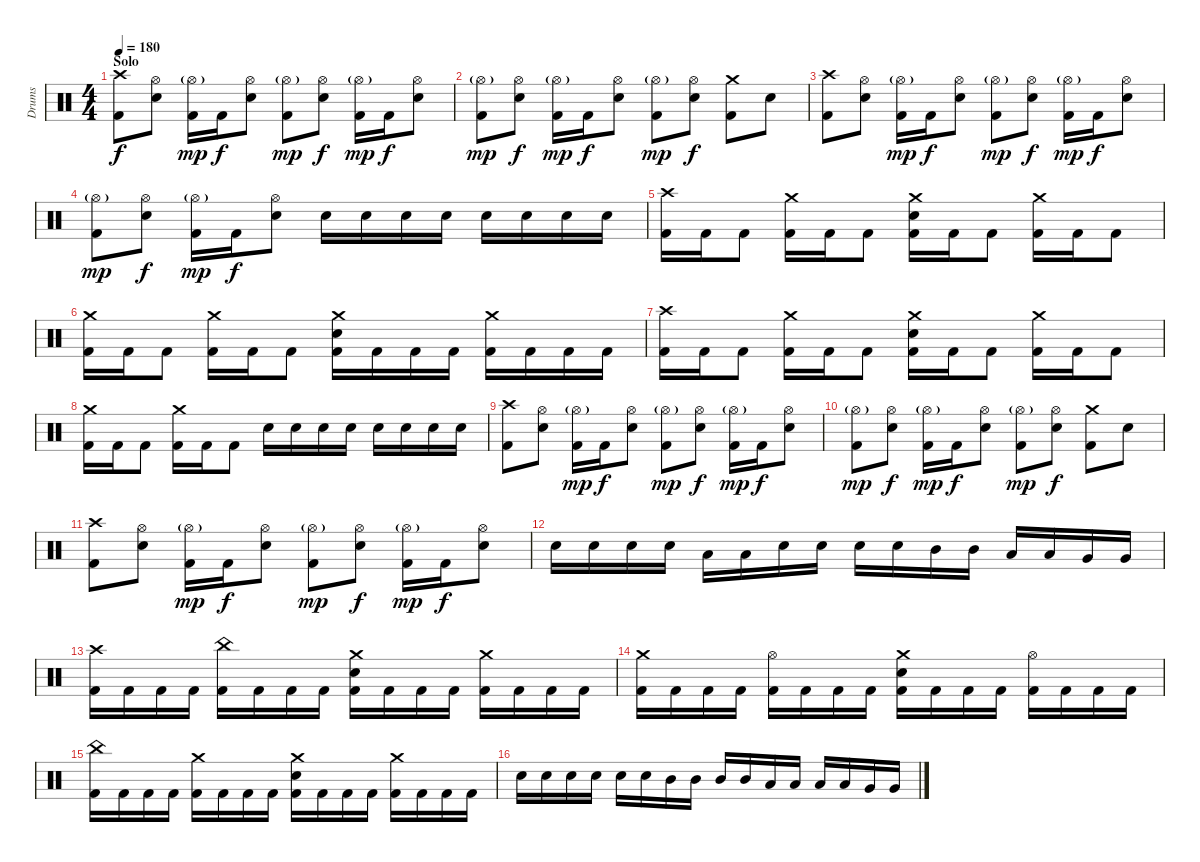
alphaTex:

\track ("Drums" "Drums") {instrument percussion}
\staff {score}
\articulation defaults
\ts (4 4)
\section ("" "Solo")
\tempo 180
\clef neutral
\ks c
("Crash high (hit)" "Kick (hit) 2").8{dy f} ("Hi-Hat (open)" "Electric Snare (hit)").8 ("Hi-Hat (open)"{g} "Kick (hit) 2").16{dy mp} "Kick (hit) 2".16{dy f} ("Hi-Hat (open)" "Electric Snare (hit)").8 ("Hi-Hat (open)"{g} "Kick (hit) 2").8{dy mp} ("Hi-Hat (open)" "Electric Snare (hit)").8{dy f} ("Hi-Hat (open)"{g} "Kick (hit) 2").16{dy mp} "Kick (hit) 2".16{dy f} ("Hi-Hat (open)" "Electric Snare (hit)").8 |
("Hi-Hat (open)"{g} "Kick (hit) 2").8{dy mp} ("Hi-Hat (open)" "Electric Snare (hit)").8{dy f} ("Hi-Hat (open)"{g} "Kick (hit) 2").16{dy mp} "Kick (hit) 2".16{dy f} ("Hi-Hat (open)" "Electric Snare (hit)").8 ("Hi-Hat (open)"{g} "Kick (hit) 2").8{dy mp} ("Hi-Hat (open)" "Electric Snare (hit)").8{dy f} ("Crash medium (hit)" "Kick (hit) 2").8 "Electric Snare (hit)".8 |
("Crash high (hit)" "Kick (hit) 2").8 ("Hi-Hat (open)" "Electric Snare (hit)").8 ("Hi-Hat (open)"{g} "Kick (hit) 2").16{dy mp} "Kick (hit) 2".16{dy f} ("Hi-Hat (open)" "Electric Snare (hit)").8 ("Hi-Hat (open)"{g} "Kick (hit) 2").8{dy mp} ("Hi-Hat (open)" "Electric Snare (hit)").8{dy f} ("Hi-Hat (open)"{g} "Kick (hit) 2").16{dy mp} "Kick (hit) 2".16{dy f} ("Hi-Hat (open)" "Electric Snare (hit)").8 |
("Hi-Hat (open)"{g} "Kick (hit) 2").8{dy mp} ("Hi-Hat (open)" "Electric Snare (hit)").8{dy f} ("Hi-Hat (open)"{g} "Kick (hit) 2").16{dy mp} "Kick (hit) 2".16{dy f} ("Hi-Hat (open)" "Electric Snare (hit)").8 "Electric Snare (hit)".16 "Electric Snare (hit)".16 "Electric Snare (hit)".16 "Electric Snare (hit)".16 "Electric Snare (hit)".16 "Electric Snare (hit)".16 "Electric Snare (hit)".16 "Electric Snare (hit)".16 |
("Crash high (hit)" "Kick (hit) 2").16 "Kick (hit) 2".16 "Kick (hit) 2".8 ("Crash medium (hit)" "Kick (hit) 2").16 "Kick (hit) 2".16 "Kick (hit) 2".8 ("Crash medium (hit)" "Electric Snare (hit)" "Kick (hit) 2").16 "Kick (hit) 2".16 "Kick (hit) 2".8 ("Crash medium (hit)" "Kick (hit) 2").16 "Kick (hit) 2".16 "Kick (hit) 2".8 |
("Crash medium (hit)" "Kick (hit) 2").16 "Kick (hit) 2".16 "Kick (hit) 2".8 ("Crash medium (hit)" "Kick (hit) 2").16 "Kick (hit) 2".16 "Kick (hit) 2".8 ("Crash medium (hit)" "Electric Snare (hit)" "Kick (hit) 2").16 "Kick (hit) 2".16 "Kick (hit) 2".16 "Kick (hit) 2".16 ("Crash medium (hit)" "Kick (hit) 2").16 "Kick (hit) 2".16 "Kick (hit) 2".16 "Kick (hit) 2".16 |
("Crash high (hit)" "Kick (hit) 2").16 "Kick (hit) 2".16 "Kick (hit) 2".8 ("Crash medium (hit)" "Kick (hit) 2").16 "Kick (hit) 2".16 "Kick (hit) 2".8 ("Crash medium (hit)" "Electric Snare (hit)" "Kick (hit) 2").16 "Kick (hit) 2".16 "Kick (hit) 2".8 ("Crash medium (hit)" "Kick (hit) 2").16 "Kick (hit) 2".16 "Kick (hit) 2".8 |
("Crash medium (hit)" "Kick (hit) 2").16 "Kick (hit) 2".16 "Kick (hit) 2".8 ("Crash medium (hit)" "Kick (hit) 2").16 "Kick (hit) 2".16 "Kick (hit) 2".8 "Electric Snare (hit)".16 "Electric Snare (hit)".16 "Electric Snare (hit)".16 "Electric Snare (hit)".16 "Electric Snare (hit)".16 "Electric Snare (hit)".16 "Electric Snare (hit)".16 "Electric Snare (hit)".16 |
("Crash high (hit)" "Kick (hit) 2").8 ("Hi-Hat (open)" "Electric Snare (hit)").8 ("Hi-Hat (open)"{g} "Kick (hit) 2").16{dy mp} "Kick (hit) 2".16{dy f} ("Hi-Hat (open)" "Electric Snare (hit)").8 ("Hi-Hat (open)"{g} "Kick (hit) 2").8{dy mp} ("Hi-Hat (open)" "Electric Snare (hit)").8{dy f} ("Hi-Hat (open)"{g} "Kick (hit) 2").16{dy mp} "Kick (hit) 2".16{dy f} ("Hi-Hat (open)" "Electric Snare (hit)").8 |
("Hi-Hat (open)"{g} "Kick (hit) 2").8{dy mp} ("Hi-Hat (open)" "Electric Snare (hit)").8{dy f} ("Hi-Hat (open)"{g} "Kick (hit) 2").16{dy mp} "Kick (hit) 2".16{dy f} ("Hi-Hat (open)" "Electric Snare (hit)").8 ("Hi-Hat (open)"{g} "Kick (hit) 2").8{dy mp} ("Hi-Hat (open)" "Electric Snare (hit)").8{dy f} ("Crash medium (hit)" "Kick (hit) 2").8 "Electric Snare (hit)".8 |
("Crash high (hit)" "Kick (hit) 2").8 ("Hi-Hat (open)" "Electric Snare (hit)").8 ("Hi-Hat (open)"{g} "Kick (hit) 2").16{dy mp} "Kick (hit) 2".16{dy f} ("Hi-Hat (open)" "Electric Snare (hit)").8 ("Hi-Hat (open)"{g} "Kick (hit) 2").8{dy mp} ("Hi-Hat (open)" "Electric Snare (hit)").8{dy f} ("Hi-Hat (open)"{g} "Kick (hit) 2").16{dy mp} "Kick (hit) 2".16{dy f} ("Hi-Hat (open)" "Electric Snare (hit)").8 |
"Electric Snare (hit)".16 "Electric Snare (hit)".16 "Electric Snare (hit)".16 "Electric Snare (hit)".16 "Low Tom (hit)".16 "Low Tom (hit)".16 "Electric Snare (hit)".16 "Electric Snare (hit)".16 "Electric Snare (hit)".16 "Electric Snare (hit)".16 "Mid Tom (hit)".16 "Mid Tom (hit)".16 "Low Tom (hit)".16 "Low Tom (hit)".16 "Very Low Tom (hit)".16 "Very Low Tom (hit)".16 |
("Crash high (hit)" "Kick (hit) 2").16 "Kick (hit) 2".16 "Kick (hit) 2".16 "Kick (hit) 2".16 ("China (hit)" "Kick (hit) 2").16 "Kick (hit) 2".16 "Kick (hit) 2".16 "Kick (hit) 2".16 ("Crash medium (hit)" "Electric Snare (hit)" "Kick (hit) 2").16 "Kick (hit) 2".16 "Kick (hit) 2".16 "Kick (hit) 2".16 ("Crash medium (hit)" "Kick (hit) 2").16 "Kick (hit) 2".16 "Kick (hit) 2".16 "Kick (hit) 2".16 |
("Crash medium (hit)" "Kick (hit) 2").16 "Kick (hit) 2".16 "Kick (hit) 2".16 "Kick (hit) 2".16 ("Hi-Hat (open)" "Kick (hit) 2").16 "Kick (hit) 2".16 "Kick (hit) 2".16 "Kick (hit) 2".16 ("Crash medium (hit)" "Electric Snare (hit)" "Kick (hit) 2").16 "Kick (hit) 2".16 "Kick (hit) 2".16 "Kick (hit) 2".16 ("Hi-Hat (open)" "Kick (hit) 2").16 "Kick (hit) 2".16 "Kick (hit) 2".16 "Kick (hit) 2".16 |
("China (hit)" "Kick (hit) 2").16 "Kick (hit) 2".16 "Kick (hit) 2".16 "Kick (hit) 2".16 ("Crash medium (hit)" "Kick (hit) 2").16 "Kick (hit) 2".16 "Kick (hit) 2".16 "Kick (hit) 2".16 ("Crash medium (hit)" "Electric Snare (hit)" "Kick (hit) 2").16 "Kick (hit) 2".16 "Kick (hit) 2".16 "Kick (hit) 2".16 ("Crash medium (hit)" "Kick (hit) 2").16 "Kick (hit) 2".16 "Kick (hit) 2".16 "Kick (hit) 2".16 |
"Electric Snare (hit)".16 "Electric Snare (hit)".16 "Electric Snare (hit)".16 "Electric Snare (hit)".16 "Electric Snare (hit)".16 "Electric Snare (hit)".16 "Mid Tom (hit)".16 "Mid Tom (hit)".16 "Mid Tom (hit)".16 "Mid Tom (hit)".16 "Low Tom (hit)".16 "Low Tom (hit)".16 "Low Tom (hit)".16 "Low Tom (hit)".16 "Very Low Tom (hit)".16 "Very Low Tom (hit)".16
